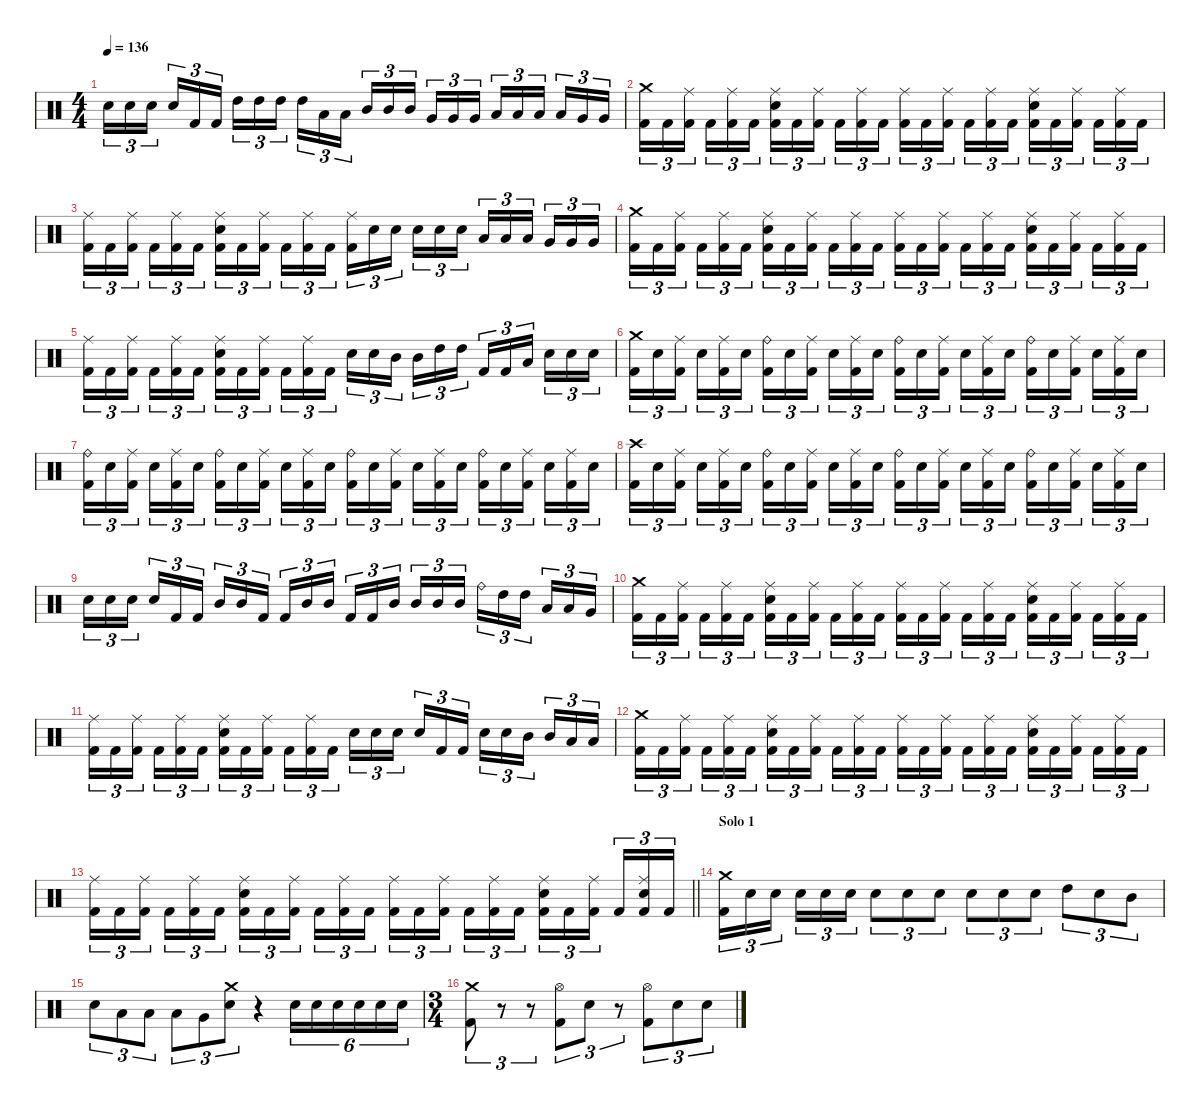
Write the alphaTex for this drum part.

\defaultSystemsLayout 4
\hideDynamics
\bracketExtendMode nobrackets
\singleTrackTrackNamePolicy hidden
\multiTrackTrackNamePolicy hidden
\firstSystemTrackNameMode fullname
\firstSystemTrackNameOrientation horizontal
\otherSystemsTrackNameOrientation horizontal
\track ("Drums" "drm.") {instrument percussion}
\staff {score}
\articulation defaults
\ts (4 4)
\tempo 136
\clef neutral
\ks c "Snare (hit) 2".16{tu (3 2) dy f beam Down} "Snare (hit) 2".16{tu (3 2) beam Down} "Snare (hit) 2".16{tu (3 2) beam Down} "Snare (hit) 2".16{tu (3 2) beam Up} "Kick (hit) 2".16{tu (3 2) beam Up} "Kick (hit) 2".16{tu (3 2) beam Up} "High Tom (hit)".16{tu (3 2) beam Down} "High Tom (hit)".16{tu (3 2) beam Down} "High Tom (hit)".16{tu (3 2) beam Down} "High Tom (hit)".16{tu (3 2) beam Down} "Low Tom (hit)".16{tu (3 2) beam Down} "Low Tom (hit)".16{tu (3 2) beam Down} "Mid Tom (hit)".16{tu (3 2) beam Up} "Mid Tom (hit)".16{tu (3 2) beam Up} "Mid Tom (hit)".16{tu (3 2) beam Up} "Very Low Tom (hit)".16{tu (3 2) beam Up} "Very Low Tom (hit)".16{tu (3 2) beam Up} "Very Low Tom (hit)".16{tu (3 2) beam Up} "Low Tom (hit)".16{tu (3 2) beam Up} "Low Tom (hit)".16{tu (3 2) beam Up} "Low Tom (hit)".16{tu (3 2) beam Up} "Low Tom (hit)".16{tu (3 2) beam Up} "Very Low Tom (hit)".16{tu (3 2) beam Up} "Very Low Tom (hit)".16{tu (3 2) beam Up}
|
("Crash medium (hit)" "Kick (hit) 2").16{tu (3 2) beam Down} "Kick (hit) 2".16{tu (3 2) beam Down} ("Ride (middle)" "Kick (hit) 2").16{tu (3 2) dy mp beam Down} "Kick (hit) 2".16{tu (3 2) dy f beam Down} ("Ride (middle)" "Kick (hit) 2").16{tu (3 2) beam Down} "Kick (hit) 2".16{tu (3 2) beam Down} ("Ride (middle)" "Snare (hit) 2" "Kick (hit) 2").16{tu (3 2) beam Down} "Kick (hit) 2".16{tu (3 2) beam Down} ("Ride (middle)" "Kick (hit) 2").16{tu (3 2) beam Down} "Kick (hit) 2".16{tu (3 2) beam Down} ("Ride (middle)" "Kick (hit) 2").16{tu (3 2) beam Down} "Kick (hit) 2".16{tu (3 2) beam Down} ("Ride (middle)" "Kick (hit) 2").16{tu (3 2) beam Down} "Kick (hit) 2".16{tu (3 2) beam Down} ("Ride (middle)" "Kick (hit) 2").16{tu (3 2) beam Down} "Kick (hit) 2".16{tu (3 2) beam Down} ("Ride (middle)" "Kick (hit) 2").16{tu (3 2) beam Down} "Kick (hit) 2".16{tu (3 2) beam Down} ("Ride (middle)" "Snare (hit) 2" "Kick (hit) 2").16{tu (3 2) beam Down} "Kick (hit) 2".16{tu (3 2) beam Down} ("Ride (middle)" "Kick (hit) 2").16{tu (3 2) beam Down} "Kick (hit) 2".16{tu (3 2) beam Down} ("Ride (middle)" "Kick (hit) 2").16{tu (3 2) beam Down} "Kick (hit) 2".16{tu (3 2) beam Down} |
("Ride (middle)" "Kick (hit) 2").16{tu (3 2) beam Down} "Kick (hit) 2".16{tu (3 2) beam Down} ("Ride (middle)" "Kick (hit) 2").16{tu (3 2) beam Down} "Kick (hit) 2".16{tu (3 2) beam Down} ("Ride (middle)" "Kick (hit) 2").16{tu (3 2) beam Down} "Kick (hit) 2".16{tu (3 2) beam Down} ("Ride (middle)" "Snare (hit) 2" "Kick (hit) 2").16{tu (3 2) beam Down} "Kick (hit) 2".16{tu (3 2) beam Down} ("Ride (middle)" "Kick (hit) 2").16{tu (3 2) beam Down} "Kick (hit) 2".16{tu (3 2) beam Down} ("Ride (middle)" "Kick (hit) 2").16{tu (3 2) beam Down} "Kick (hit) 2".16{tu (3 2) beam Down} ("Ride (middle)" "Kick (hit) 2").16{tu (3 2) beam Down} "Snare (hit) 2".16{tu (3 2) dy mf beam Down} "Snare (hit) 2".16{tu (3 2) dy f beam Down} "Snare (hit) 2".16{tu (3 2) beam Down} "Snare (hit) 2".16{tu (3 2) beam Down} "Snare (hit) 2".16{tu (3 2) beam Down} "Low Tom (hit)".16{tu (3 2) beam Up} "Low Tom (hit)".16{tu (3 2) beam Up} "Low Tom (hit)".16{tu (3 2) beam Up} "Very Low Tom (hit)".16{tu (3 2) beam Up} "Very Low Tom (hit)".16{tu (3 2) beam Up} "Very Low Tom (hit)".16{tu (3 2) beam Up} |
("Crash medium (hit)" "Kick (hit) 2").16{tu (3 2) beam Down} "Kick (hit) 2".16{tu (3 2) beam Down} ("Ride (middle)" "Kick (hit) 2").16{tu (3 2) dy mp beam Down} "Kick (hit) 2".16{tu (3 2) dy f beam Down} ("Ride (middle)" "Kick (hit) 2").16{tu (3 2) beam Down} "Kick (hit) 2".16{tu (3 2) beam Down} ("Ride (middle)" "Snare (hit) 2" "Kick (hit) 2").16{tu (3 2) beam Down} "Kick (hit) 2".16{tu (3 2) beam Down} ("Ride (middle)" "Kick (hit) 2").16{tu (3 2) beam Down} "Kick (hit) 2".16{tu (3 2) beam Down} ("Ride (middle)" "Kick (hit) 2").16{tu (3 2) beam Down} "Kick (hit) 2".16{tu (3 2) beam Down} ("Ride (middle)" "Kick (hit) 2").16{tu (3 2) beam Down} "Kick (hit) 2".16{tu (3 2) beam Down} ("Ride (middle)" "Kick (hit) 2").16{tu (3 2) beam Down} "Kick (hit) 2".16{tu (3 2) beam Down} ("Ride (middle)" "Kick (hit) 2").16{tu (3 2) beam Down} "Kick (hit) 2".16{tu (3 2) beam Down} ("Ride (middle)" "Snare (hit) 2" "Kick (hit) 2").16{tu (3 2) beam Down} "Kick (hit) 2".16{tu (3 2) beam Down} ("Ride (middle)" "Kick (hit) 2").16{tu (3 2) beam Down} "Kick (hit) 2".16{tu (3 2) beam Down} ("Ride (middle)" "Kick (hit) 2").16{tu (3 2) beam Down} "Kick (hit) 2".16{tu (3 2) beam Down} |
("Ride (middle)" "Kick (hit) 2").16{tu (3 2) beam Down} "Kick (hit) 2".16{tu (3 2) beam Down} ("Ride (middle)" "Kick (hit) 2").16{tu (3 2) beam Down} "Kick (hit) 2".16{tu (3 2) beam Down} ("Ride (middle)" "Kick (hit) 2").16{tu (3 2) beam Down} "Kick (hit) 2".16{tu (3 2) beam Down} ("Ride (middle)" "Snare (hit) 2" "Kick (hit) 2").16{tu (3 2) beam Down} "Kick (hit) 2".16{tu (3 2) beam Down} ("Ride (middle)" "Kick (hit) 2").16{tu (3 2) beam Down} "Kick (hit) 2".16{tu (3 2) beam Down} ("Ride (middle)" "Kick (hit) 2").16{tu (3 2) beam Down} "Kick (hit) 2".16{tu (3 2) beam Down} "Snare (hit) 2".16{tu (3 2) beam Down} "Snare (hit) 2".16{tu (3 2) beam Down} "Mid Tom (hit)".16{tu (3 2) beam Down} "Mid Tom (hit)".16{tu (3 2) beam Down} "High Tom (hit)".16{tu (3 2) beam Down} "High Tom (hit)".16{tu (3 2) beam Down} "Kick (hit) 2".16{tu (3 2) beam Up} "Kick (hit) 2".16{tu (3 2) beam Up} "Low Tom (hit)".16{tu (3 2) beam Up} "Snare (hit) 2".16{tu (3 2) beam Down} "Snare (hit) 2".16{tu (3 2) beam Down} "Snare (hit) 2".16{tu (3 2) beam Down} |
("Crash medium (hit)" "Kick (hit) 2").16{tu (3 2) beam Down} "Snare (hit) 2".16{tu (3 2) beam Down} ("Ride (middle)" "Kick (hit) 2").16{tu (3 2) beam Down} "Snare (hit) 2".16{tu (3 2) beam Down} ("Ride (middle)" "Kick (hit) 2").16{tu (3 2) beam Down} "Snare (hit) 2".16{tu (3 2) beam Down} ("Ride (bell)" "Kick (hit) 2").16{tu (3 2) beam Down} "Snare (hit) 2".16{tu (3 2) beam Down} ("Ride (middle)" "Kick (hit) 2").16{tu (3 2) beam Down} "Snare (hit) 2".16{tu (3 2) beam Down} ("Ride (middle)" "Kick (hit) 2").16{tu (3 2) beam Down} "Snare (hit) 2".16{tu (3 2) beam Down} ("Ride (bell)" "Kick (hit) 2").16{tu (3 2) beam Down} "Snare (hit) 2".16{tu (3 2) beam Down} ("Ride (middle)" "Kick (hit) 2").16{tu (3 2) beam Down} "Snare (hit) 2".16{tu (3 2) beam Down} ("Ride (middle)" "Kick (hit) 2").16{tu (3 2) beam Down} "Snare (hit) 2".16{tu (3 2) beam Down} ("Ride (bell)" "Kick (hit) 2").16{tu (3 2) beam Down} "Snare (hit) 2".16{tu (3 2) beam Down} ("Ride (middle)" "Kick (hit) 2").16{tu (3 2) beam Down} "Snare (hit) 2".16{tu (3 2) beam Down} ("Ride (middle)" "Kick (hit) 2").16{tu (3 2) beam Down} "Snare (hit) 2".16{tu (3 2) beam Down} |
("Ride (bell)" "Kick (hit) 2").16{tu (3 2) beam Down} "Snare (hit) 2".16{tu (3 2) beam Down} ("Ride (middle)" "Kick (hit) 2").16{tu (3 2) beam Down} "Snare (hit) 2".16{tu (3 2) beam Down} ("Ride (middle)" "Kick (hit) 2").16{tu (3 2) beam Down} "Snare (hit) 2".16{tu (3 2) beam Down} ("Ride (bell)" "Kick (hit) 2").16{tu (3 2) beam Down} "Snare (hit) 2".16{tu (3 2) beam Down} ("Ride (middle)" "Kick (hit) 2").16{tu (3 2) beam Down} "Snare (hit) 2".16{tu (3 2) beam Down} ("Ride (middle)" "Kick (hit) 2").16{tu (3 2) beam Down} "Snare (hit) 2".16{tu (3 2) beam Down} ("Ride (bell)" "Kick (hit) 2").16{tu (3 2) beam Down} "Snare (hit) 2".16{tu (3 2) beam Down} ("Ride (middle)" "Kick (hit) 2").16{tu (3 2) beam Down} "Snare (hit) 2".16{tu (3 2) beam Down} ("Ride (middle)" "Kick (hit) 2").16{tu (3 2) beam Down} "Snare (hit) 2".16{tu (3 2) beam Down} ("Ride (bell)" "Kick (hit) 2").16{tu (3 2) beam Down} "Snare (hit) 2".16{tu (3 2) beam Down} ("Ride (middle)" "Kick (hit) 2").16{tu (3 2) beam Down} "Snare (hit) 2".16{tu (3 2) beam Down} ("Ride (middle)" "Kick (hit) 2").16{tu (3 2) beam Down} "Snare (hit) 2".16{tu (3 2) beam Down} |
("Crash high (hit)" "Kick (hit) 2").16{tu (3 2) beam Down} "Snare (hit) 2".16{tu (3 2) beam Down} ("Ride (middle)" "Kick (hit) 2").16{tu (3 2) beam Down} "Snare (hit) 2".16{tu (3 2) beam Down} ("Ride (middle)" "Kick (hit) 2").16{tu (3 2) beam Down} "Snare (hit) 2".16{tu (3 2) beam Down} ("Ride (bell)" "Kick (hit) 2").16{tu (3 2) beam Down} "Snare (hit) 2".16{tu (3 2) beam Down} ("Ride (middle)" "Kick (hit) 2").16{tu (3 2) beam Down} "Snare (hit) 2".16{tu (3 2) beam Down} ("Ride (middle)" "Kick (hit) 2").16{tu (3 2) beam Down} "Snare (hit) 2".16{tu (3 2) beam Down} ("Ride (bell)" "Kick (hit) 2").16{tu (3 2) beam Down} "Snare (hit) 2".16{tu (3 2) beam Down} ("Ride (middle)" "Kick (hit) 2").16{tu (3 2) beam Down} "Snare (hit) 2".16{tu (3 2) beam Down} ("Ride (middle)" "Kick (hit) 2").16{tu (3 2) beam Down} "Snare (hit) 2".16{tu (3 2) beam Down} ("Ride (bell)" "Kick (hit) 2").16{tu (3 2) beam Down} "Snare (hit) 2".16{tu (3 2) beam Down} ("Ride (middle)" "Kick (hit) 2").16{tu (3 2) beam Down} "Snare (hit) 2".16{tu (3 2) beam Down} ("Ride (middle)" "Kick (hit) 2").16{tu (3 2) beam Down} "Snare (hit) 2".16{tu (3 2) beam Down} |
"Snare (hit) 2".16{tu (3 2) beam Down} "Snare (hit) 2".16{tu (3 2) beam Down} "Snare (hit) 2".16{tu (3 2) beam Down} "Snare (hit) 2".16{tu (3 2) beam Up} "Kick (hit) 2".16{tu (3 2) beam Up} "Kick (hit) 2".16{tu (3 2) beam Up} "Mid Tom (hit)".16{tu (3 2) beam Up} "Mid Tom (hit)".16{tu (3 2) beam Up} "Kick (hit) 2".16{tu (3 2) beam Up} "Kick (hit) 2".16{tu (3 2) beam Up} "Mid Tom (hit)".16{tu (3 2) beam Up} "Mid Tom (hit)".16{tu (3 2) beam Up} "Kick (hit) 2".16{tu (3 2) beam Up} "Kick (hit) 2".16{tu (3 2) beam Up} "Mid Tom (hit)".16{tu (3 2) beam Up} "Mid Tom (hit)".16{tu (3 2) beam Up} "Mid Tom (hit)".16{tu (3 2) beam Up} "Mid Tom (hit)".16{tu (3 2) beam Up} "Ride (bell)".16{tu (3 2) dy fff beam Down} "High Tom (hit)".16{tu (3 2) dy f beam Down} "High Tom (hit)".16{tu (3 2) beam Down} "Low Tom (hit)".16{tu (3 2) beam Up} "Low Tom (hit)".16{tu (3 2) beam Up} "Very Low Tom (hit)".16{tu (3 2) beam Up} |
("Crash medium (hit)" "Kick (hit) 2").16{tu (3 2) beam Down} "Kick (hit) 2".16{tu (3 2) beam Down} ("Ride (middle)" "Kick (hit) 2").16{tu (3 2) dy mp beam Down} "Kick (hit) 2".16{tu (3 2) dy f beam Down} ("Ride (middle)" "Kick (hit) 2").16{tu (3 2) beam Down} "Kick (hit) 2".16{tu (3 2) beam Down} ("Ride (middle)" "Snare (hit) 2" "Kick (hit) 2").16{tu (3 2) beam Down} "Kick (hit) 2".16{tu (3 2) beam Down} ("Ride (middle)" "Kick (hit) 2").16{tu (3 2) beam Down} "Kick (hit) 2".16{tu (3 2) beam Down} ("Ride (middle)" "Kick (hit) 2").16{tu (3 2) beam Down} "Kick (hit) 2".16{tu (3 2) beam Down} ("Ride (middle)" "Kick (hit) 2").16{tu (3 2) beam Down} "Kick (hit) 2".16{tu (3 2) beam Down} ("Ride (middle)" "Kick (hit) 2").16{tu (3 2) beam Down} "Kick (hit) 2".16{tu (3 2) beam Down} ("Ride (middle)" "Kick (hit) 2").16{tu (3 2) beam Down} "Kick (hit) 2".16{tu (3 2) beam Down} ("Ride (middle)" "Snare (hit) 2" "Kick (hit) 2").16{tu (3 2) beam Down} "Kick (hit) 2".16{tu (3 2) beam Down} ("Ride (middle)" "Kick (hit) 2").16{tu (3 2) beam Down} "Kick (hit) 2".16{tu (3 2) beam Down} ("Ride (middle)" "Kick (hit) 2").16{tu (3 2) beam Down} "Kick (hit) 2".16{tu (3 2) beam Down} |
("Ride (middle)" "Kick (hit) 2").16{tu (3 2) beam Down} "Kick (hit) 2".16{tu (3 2) beam Down} ("Ride (middle)" "Kick (hit) 2").16{tu (3 2) beam Down} "Kick (hit) 2".16{tu (3 2) beam Down} ("Ride (middle)" "Kick (hit) 2").16{tu (3 2) beam Down} "Kick (hit) 2".16{tu (3 2) beam Down} ("Ride (middle)" "Snare (hit) 2" "Kick (hit) 2").16{tu (3 2) beam Down} "Kick (hit) 2".16{tu (3 2) beam Down} ("Ride (middle)" "Kick (hit) 2").16{tu (3 2) beam Down} "Kick (hit) 2".16{tu (3 2) beam Down} ("Ride (middle)" "Kick (hit) 2").16{tu (3 2) beam Down} "Kick (hit) 2".16{tu (3 2) beam Down} "Snare (hit) 2".16{tu (3 2) beam Down} "Snare (hit) 2".16{tu (3 2) beam Down} "Snare (hit) 2".16{tu (3 2) beam Down} "Snare (hit) 2".16{tu (3 2) beam Up} "Kick (hit) 2".16{tu (3 2) beam Up} "Kick (hit) 2".16{tu (3 2) beam Up} "Snare (hit) 2".16{tu (3 2) beam Down} "Snare (hit) 2".16{tu (3 2) beam Down} "Mid Tom (hit)".16{tu (3 2) beam Down} "Mid Tom (hit)".16{tu (3 2) beam Up} "Low Tom (hit)".16{tu (3 2) beam Up} "Low Tom (hit)".16{tu (3 2) beam Up} |
("Crash medium (hit)" "Kick (hit) 2").16{tu (3 2) beam Down} "Kick (hit) 2".16{tu (3 2) beam Down} ("Ride (middle)" "Kick (hit) 2").16{tu (3 2) dy mp beam Down} "Kick (hit) 2".16{tu (3 2) dy f beam Down} ("Ride (middle)" "Kick (hit) 2").16{tu (3 2) beam Down} "Kick (hit) 2".16{tu (3 2) beam Down} ("Ride (middle)" "Snare (hit) 2" "Kick (hit) 2").16{tu (3 2) beam Down} "Kick (hit) 2".16{tu (3 2) beam Down} ("Ride (middle)" "Kick (hit) 2").16{tu (3 2) beam Down} "Kick (hit) 2".16{tu (3 2) beam Down} ("Ride (middle)" "Kick (hit) 2").16{tu (3 2) beam Down} "Kick (hit) 2".16{tu (3 2) beam Down} ("Ride (middle)" "Kick (hit) 2").16{tu (3 2) beam Down} "Kick (hit) 2".16{tu (3 2) beam Down} ("Ride (middle)" "Kick (hit) 2").16{tu (3 2) beam Down} "Kick (hit) 2".16{tu (3 2) beam Down} ("Ride (middle)" "Kick (hit) 2").16{tu (3 2) beam Down} "Kick (hit) 2".16{tu (3 2) beam Down} ("Ride (middle)" "Snare (hit) 2" "Kick (hit) 2").16{tu (3 2) beam Down} "Kick (hit) 2".16{tu (3 2) beam Down} ("Ride (middle)" "Kick (hit) 2").16{tu (3 2) beam Down} "Kick (hit) 2".16{tu (3 2) beam Down} ("Ride (middle)" "Kick (hit) 2").16{tu (3 2) beam Down} "Kick (hit) 2".16{tu (3 2) beam Down} |
\barLineRight lightlight
("Ride (middle)" "Kick (hit) 2").16{tu (3 2) beam Down} "Kick (hit) 2".16{tu (3 2) beam Down} ("Ride (middle)" "Kick (hit) 2").16{tu (3 2) beam Down} "Kick (hit) 2".16{tu (3 2) beam Down} ("Ride (middle)" "Kick (hit) 2").16{tu (3 2) beam Down} "Kick (hit) 2".16{tu (3 2) beam Down} ("Ride (middle)" "Snare (hit) 2" "Kick (hit) 2").16{tu (3 2) beam Down} "Kick (hit) 2".16{tu (3 2) beam Down} ("Ride (middle)" "Kick (hit) 2").16{tu (3 2) beam Down} "Kick (hit) 2".16{tu (3 2) beam Down} ("Ride (middle)" "Kick (hit) 2").16{tu (3 2) beam Down} "Kick (hit) 2".16{tu (3 2) beam Down} ("Ride (middle)" "Kick (hit) 2").16{tu (3 2) beam Down} "Kick (hit) 2".16{tu (3 2) beam Down} ("Ride (middle)" "Kick (hit) 2").16{tu (3 2) beam Down} "Kick (hit) 2".16{tu (3 2) beam Down} ("Ride (middle)" "Kick (hit) 2").16{tu (3 2) beam Down} "Kick (hit) 2".16{tu (3 2) beam Down} ("Ride (middle)" "Snare (hit) 2" "Kick (hit) 2").16{tu (3 2) beam Down} "Kick (hit) 2".16{tu (3 2) beam Down} ("Ride (middle)" "Kick (hit) 2").16{tu (3 2) beam Down} "Kick (hit) 2".16{tu (3 2) beam Up} ("Ride (middle)" "Snare (hit) 2" "Kick (hit) 2").16{tu (3 2) beam Up} "Kick (hit) 2".16{tu (3 2) beam Up} |
\section ("" "Solo 1")
("Crash medium (hit)" "Kick (hit) 2").16{tu (3 2) beam Down} "Snare (hit) 2".16{tu (3 2) dy p beam Down} "Snare (hit) 2".16{tu (3 2) dy fff beam Down} "Snare (hit) 2".16{tu (3 2) dy mp beam Down} "Snare (hit) 2".16{tu (3 2) dy mf beam Down} "Snare (hit) 2".16{tu (3 2) beam Down} "Snare (hit) 2".8{tu (3 2) beam Down} "Snare (hit) 2".8{tu (3 2) dy f beam Down} "Snare (hit) 2".8{tu (3 2) beam Down} "Snare (hit) 2".8{tu (3 2) beam Down} "Snare (hit) 2".8{tu (3 2) beam Down} "Snare (hit) 2".8{tu (3 2) beam Down} "High Tom (hit)".8{tu (3 2) beam Down} "Snare (hit) 2".8{tu (3 2) dy mf beam Down} "Mid Tom (hit)".8{tu (3 2) dy f beam Down} |
"Snare (hit) 2".8{tu (3 2) dy mf beam Down} "Low Tom (hit)".8{tu (3 2) dy f beam Down} "Low Tom (hit)".8{tu (3 2) beam Down} "Low Tom (hit)".8{tu (3 2) beam Down} "Very Low Tom (hit)".8{tu (3 2) beam Down} ("Crash medium (hit)" "Snare (hit) 2").8{tu (3 2) beam Down} r.4{beam Down} "Snare (hit) 2".16{tu (6 4) dy p beam Down} "Snare (hit) 2".16{tu (6 4) beam Down} "Snare (hit) 2".16{tu (6 4) dy mp beam Down} "Snare (hit) 2".16{tu (6 4) beam Down} "Snare (hit) 2".16{tu (6 4) beam Down} "Snare (hit) 2".16{tu (6 4) dy f beam Down} |
\ts (3 4)
\beaming (8 2 2 2)
("Crash medium (hit)" "Kick (hit) 2").8{tu (3 2) beam Down} r.8{tu (3 2) beam Down} r.8{tu (3 2) beam Down} ("Hi-Hat (open)" "Kick (hit) 2").8{tu (3 2) beam Down} "Snare (hit) 2".8{tu (3 2) beam Down} r.8{tu (3 2) beam Down} ("Hi-Hat (open)" "Kick (hit) 2").8{tu (3 2) beam Down} "Snare (hit) 2".8{tu (3 2) beam Down} "Snare (hit) 2".8{tu (3 2) beam Down}
